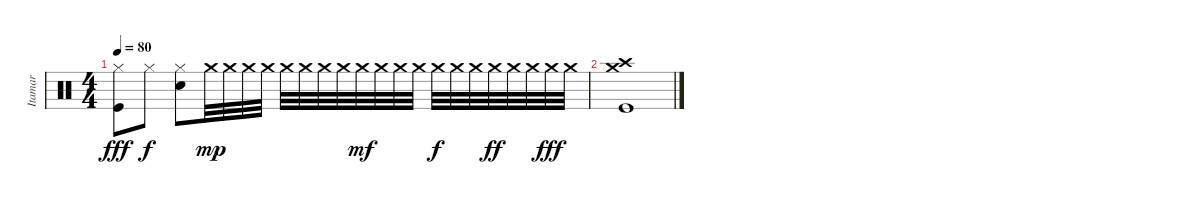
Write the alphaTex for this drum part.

\track ("Itamar" "Itamar") {instrument percussion}
\staff {score}
\articulation defaults
\ts (4 4)
\tempo 80
\clef neutral
\ks c
("Hi-Hat (closed)" "Kick (hit)").8{dy fff} "Hi-Hat (closed)".8{dy f} ("Hi-Hat (closed)" "Electric Snare (hit)").8 "Crash medium (hit)".32{dy mp} "Crash medium (hit)".32 "Crash medium (hit)".32 "Crash medium (hit)".32 "Crash medium (hit)".32 "Crash medium (hit)".32 "Crash medium (hit)".32 "Crash medium (hit)".32 "Crash medium (hit)".32{dy mf} "Crash medium (hit)".32 "Crash medium (hit)".32 "Crash medium (hit)".32 "Crash medium (hit)".32{dy f} "Crash medium (hit)".32 "Crash medium (hit)".32 "Crash medium (hit)".32{dy ff} "Crash medium (hit)".32 "Crash medium (hit)".32 "Crash medium (hit)".32{dy fff} "Crash medium (hit)".32 |
("Crash high (hit)" "Crash medium (hit)" "Kick (hit)").1
